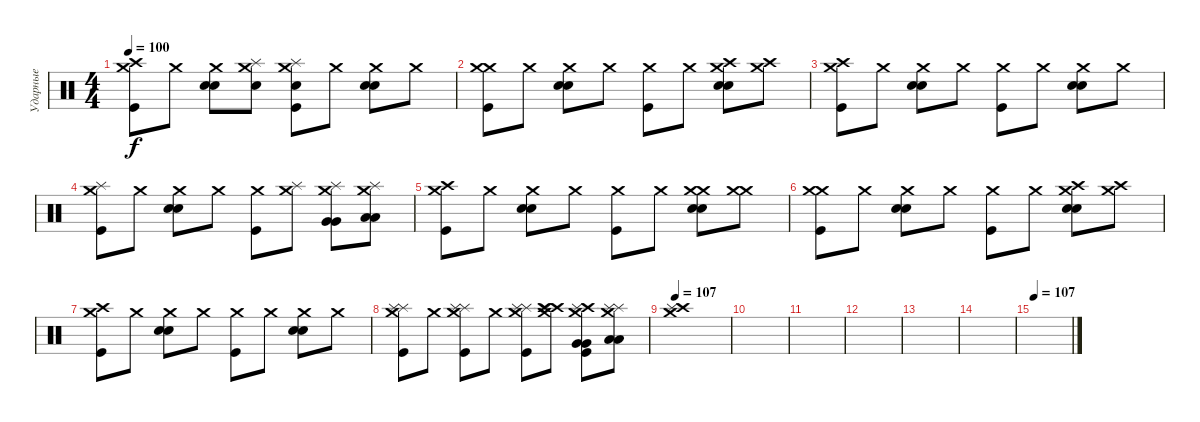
\track ("Ударные" "Ударные") {instrument percussion}
\staff {score}
\articulation defaults
\ts (4 4)
\tempo 100
\clef neutral
\ks c
("Crash medium (hit)" "Crash high (hit)" "Kick (hit)").8{dy f} "Crash medium (hit)".8 ("Crash medium (hit)" "Snare (hit) 2" "Snare (hit) 2").8 ("Crash medium (hit)" "Splash (hit)" "Electric Snare (hit)").8 ("Crash medium (hit)" "Splash (hit)" "Electric Snare (hit)" "Kick (hit)").8 "Crash medium (hit)".8 ("Crash medium (hit)" "Snare (hit) 2" "Snare (hit) 2").8 "Crash medium (hit)".8 |
("Crash medium (hit)" "Crash medium (hit)" "Kick (hit)").8 "Crash medium (hit)".8 ("Crash medium (hit)" "Snare (hit) 2" "Snare (hit) 2").8 "Crash medium (hit)".8 ("Crash medium (hit)" "Kick (hit)").8 "Crash medium (hit)".8 ("Crash medium (hit)" "Crash high (hit)" "Snare (hit) 2" "Snare (hit) 2").8 ("Crash medium (hit)" "Crash high (hit)").8 |
("Crash medium (hit)" "Crash high (hit)" "Kick (hit)").8 "Crash medium (hit)".8 ("Crash medium (hit)" "Snare (hit) 2" "Snare (hit) 2").8 "Crash medium (hit)".8 ("Crash medium (hit)" "Kick (hit)").8 "Crash medium (hit)".8 ("Crash medium (hit)" "Snare (hit) 2" "Snare (hit) 2").8 "Crash medium (hit)".8 |
("Crash medium (hit)" "Splash (hit)" "Kick (hit)").8 "Crash medium (hit)".8 ("Crash medium (hit)" "Snare (hit) 2" "Snare (hit) 2").8 "Crash medium (hit)".8 ("Crash medium (hit)" "Kick (hit)").8 ("Crash medium (hit)" "Splash (hit)").8 ("Crash medium (hit)" "Splash (hit)" "Very Low Tom (hit)" "Very Low Tom (hit)").8 ("Crash medium (hit)" "Splash (hit)" "Low Floor Tom (hit)" "Low Floor Tom (hit)").8 |
("Crash medium (hit)" "Crash high (hit)" "Kick (hit)").8 "Crash medium (hit)".8 ("Crash medium (hit)" "Snare (hit) 2" "Snare (hit) 2").8 "Crash medium (hit)".8 ("Crash medium (hit)" "Kick (hit)").8 "Crash medium (hit)".8 ("Crash medium (hit)" "Crash medium (hit)" "Snare (hit) 2" "Snare (hit) 2").8 ("Crash medium (hit)" "Crash medium (hit)").8 |
("Crash medium (hit)" "Crash medium (hit)" "Kick (hit)").8 "Crash medium (hit)".8 ("Crash medium (hit)" "Snare (hit) 2" "Snare (hit) 2").8 "Crash medium (hit)".8 ("Crash medium (hit)" "Kick (hit)").8 "Crash medium (hit)".8 ("Crash medium (hit)" "Crash high (hit)" "Snare (hit) 2" "Snare (hit) 2").8 ("Crash medium (hit)" "Crash high (hit)").8 |
("Crash medium (hit)" "Crash high (hit)" "Kick (hit)").8 "Crash medium (hit)".8 ("Crash medium (hit)" "Snare (hit) 2" "Snare (hit) 2").8 "Crash medium (hit)".8 ("Crash medium (hit)" "Kick (hit)").8 "Crash medium (hit)".8 ("Crash medium (hit)" "Snare (hit) 2" "Snare (hit) 2").8 "Crash medium (hit)".8 |
("Crash medium (hit)" "Splash (hit)" "Splash (hit)" "Kick (hit)").8 "Crash medium (hit)".8 ("Crash medium (hit)" "Splash (hit)" "Splash (hit)" "Kick (hit)").8 "Crash medium (hit)".8 ("Crash medium (hit)" "Splash (hit)" "Splash (hit)" "Kick (hit)").8 ("Crash medium (hit)" "Crash high (hit)" "Crash high (hit)" "Splash (hit)").8 ("Crash medium (hit)" "Crash high (hit)" "Very Low Tom (hit)" "Very Low Tom (hit)" "Splash (hit)" "Kick (hit)").8 ("Crash medium (hit)" "Splash (hit)" "Low Floor Tom (hit)" "Low Floor Tom (hit)" "Splash (hit)").8 |
\tempo 107
("Crash high (hit)" "Crash medium (hit)" "Splash (hit)").1 |
|
|
|
|
|
\tempo 107
